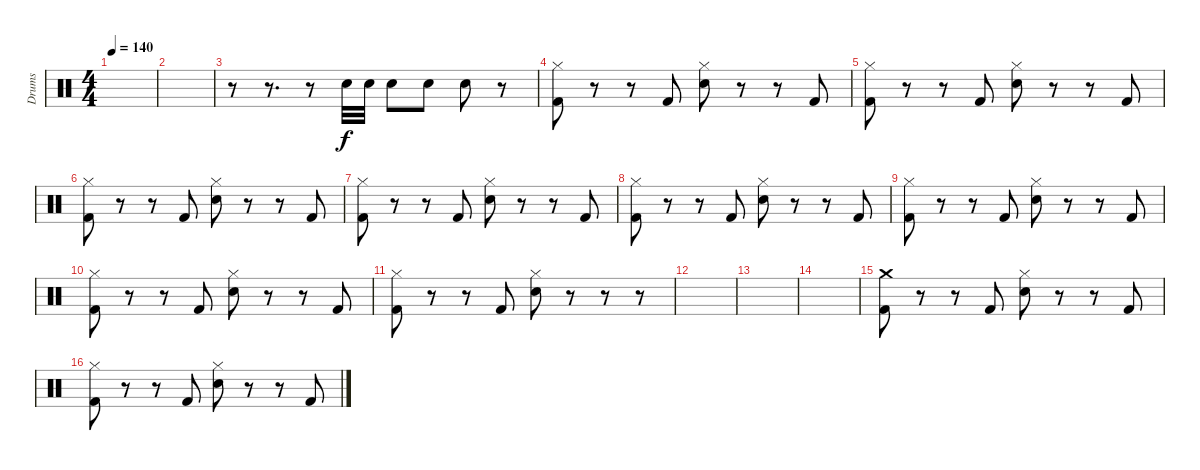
\track ("Drums" "Drums") {instrument percussion}
\staff {score}
\articulation defaults
\ts (4 4)
\tempo 140
\clef neutral
\ks c
|
|
r.8 r.8{d} r.8 "Electric Snare (hit)".32 "Electric Snare (hit)".32 "Electric Snare (hit)".8 "Electric Snare (hit)".8 "Electric Snare (hit)".8 r.8 |
("Hi-Hat (closed)" "Kick (hit) 2").8 r.8 r.8 "Kick (hit) 2".8 ("Hi-Hat (closed)" "Snare (hit) 2").8 r.8 r.8 "Kick (hit) 2".8 |
("Hi-Hat (closed)" "Kick (hit) 2").8 r.8 r.8 "Kick (hit) 2".8 ("Hi-Hat (closed)" "Snare (hit) 2").8 r.8 r.8 "Kick (hit) 2".8 |
("Hi-Hat (closed)" "Kick (hit) 2").8 r.8 r.8 "Kick (hit) 2".8 ("Hi-Hat (closed)" "Snare (hit) 2").8 r.8 r.8 "Kick (hit) 2".8 |
("Hi-Hat (closed)" "Kick (hit) 2").8 r.8 r.8 "Kick (hit) 2".8 ("Hi-Hat (closed)" "Snare (hit) 2").8 r.8 r.8 "Kick (hit) 2".8 |
("Hi-Hat (closed)" "Kick (hit) 2").8 r.8 r.8 "Kick (hit) 2".8 ("Hi-Hat (closed)" "Snare (hit) 2").8 r.8 r.8 "Kick (hit) 2".8 |
("Hi-Hat (closed)" "Kick (hit) 2").8 r.8 r.8 "Kick (hit) 2".8 ("Hi-Hat (closed)" "Snare (hit) 2").8 r.8 r.8 "Kick (hit) 2".8 |
("Hi-Hat (closed)" "Kick (hit) 2").8 r.8 r.8 "Kick (hit) 2".8 ("Hi-Hat (closed)" "Snare (hit) 2").8 r.8 r.8 "Kick (hit) 2".8 |
("Hi-Hat (closed)" "Kick (hit) 2").8 r.8 r.8 "Kick (hit) 2".8 ("Hi-Hat (closed)" "Snare (hit) 2").8 r.8 r.8 r.8 |
|
|
|
("Crash medium (hit)" "Kick (hit) 2").8 r.8 r.8 "Kick (hit) 2".8 ("Hi-Hat (closed)" "Snare (hit) 2").8 r.8 r.8 "Kick (hit) 2".8 |
("Hi-Hat (closed)" "Kick (hit) 2").8 r.8 r.8 "Kick (hit) 2".8 ("Hi-Hat (closed)" "Snare (hit) 2").8 r.8 r.8 "Kick (hit) 2".8
